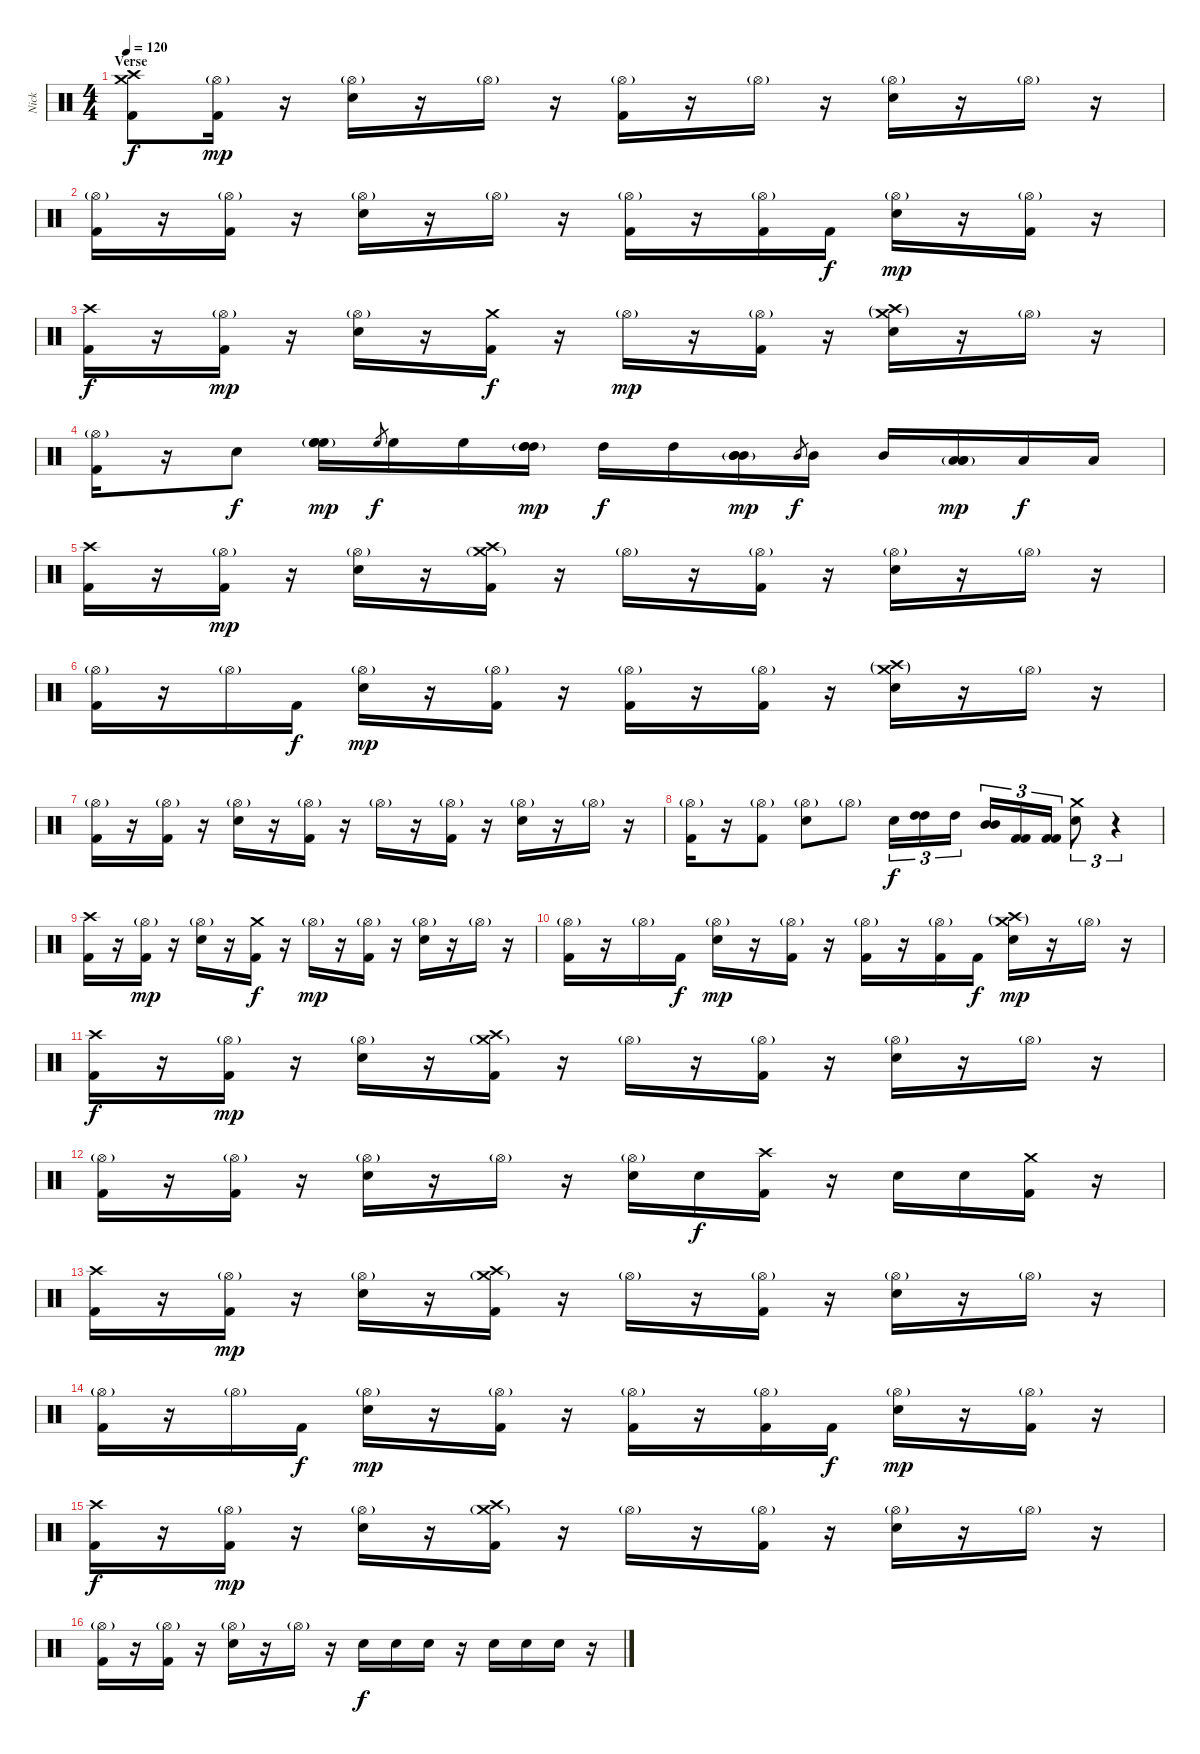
\track ("Nick" "Nick") {instrument percussion}
\staff {score}
\articulation defaults
\ts (4 4)
\section ("" "Verse")
\tempo 120
\clef neutral
\ks c
("Crash high (hit)" "Crash medium (hit)" "Kick (hit) 2").8{dy f} ("Hi-Hat (open)"{g} "Kick (hit) 2").16{dy mp} r.16 ("Hi-Hat (open)"{g} "Electric Snare (hit)").16 r.16 "Hi-Hat (open)"{g}.16 r.16 ("Hi-Hat (open)"{g} "Kick (hit) 2").16 r.16 "Hi-Hat (open)"{g}.16 r.16 ("Hi-Hat (open)"{g} "Electric Snare (hit)").16 r.16 "Hi-Hat (open)"{g}.16 r.16 |
("Hi-Hat (open)"{g} "Kick (hit) 2").16 r.16 ("Hi-Hat (open)"{g} "Kick (hit) 2").16 r.16 ("Hi-Hat (open)"{g} "Electric Snare (hit)").16 r.16 "Hi-Hat (open)"{g}.16 r.16 ("Hi-Hat (open)"{g} "Kick (hit) 2").16 r.16 ("Hi-Hat (open)"{g} "Kick (hit) 2").16 "Kick (hit) 2".16{dy f} ("Hi-Hat (open)"{g} "Electric Snare (hit)").16{dy mp} r.16 ("Hi-Hat (open)"{g} "Kick (hit) 2").16 r.16 |
("Crash high (hit)" "Kick (hit) 2").16{dy f} r.16 ("Hi-Hat (open)"{g} "Kick (hit) 2").16{dy mp} r.16 ("Hi-Hat (open)"{g} "Electric Snare (hit)").16 r.16 ("Crash medium (hit)" "Kick (hit) 2").16{dy f} r.16 "Hi-Hat (open)"{g}.16{dy mp} r.16 ("Hi-Hat (open)"{g} "Kick (hit) 2").16 r.16 ("Crash medium (hit)"{g} "Crash high (hit)"{g} "Electric Snare (hit)").16 r.16 "Hi-Hat (open)"{g}.16 r.16 |
("Hi-Hat (open)"{g} "Kick (hit) 2").16 r.16 "Electric Snare (hit)".8{dy f} ("High Floor Tom (hit)" "High Floor Tom (hit)" "High Floor Tom (hit)"{g}).16{dy mp} "High Floor Tom (hit)".8{gr dy f} "High Floor Tom (hit)".16 "High Floor Tom (hit)".16 ("High Tom (hit)" "High Tom (hit)" "High Tom (hit)"{g}).16{dy mp} "High Tom (hit)".16{dy f} "High Tom (hit)".16 ("Mid Tom (hit)" "Mid Tom (hit)" "Mid Tom (hit)"{g}).16{dy mp} "Mid Tom (hit)".8{gr dy f} "Mid Tom (hit)".16 "Mid Tom (hit)".16 ("Low Tom (hit)" "Low Tom (hit)" "Low Tom (hit)"{g}).16{dy mp} "Low Tom (hit)".16{dy f} "Low Tom (hit)".16 |
("Crash high (hit)" "Kick (hit) 2").16 r.16 ("Hi-Hat (open)"{g} "Kick (hit) 2").16{dy mp} r.16 ("Hi-Hat (open)"{g} "Electric Snare (hit)").16 r.16 ("Crash medium (hit)"{g} "Crash high (hit)" "Kick (hit) 2").16 r.16 "Hi-Hat (open)"{g}.16 r.16 ("Hi-Hat (open)"{g} "Kick (hit) 2").16 r.16 ("Hi-Hat (open)"{g} "Electric Snare (hit)").16 r.16 "Hi-Hat (open)"{g}.16 r.16 |
("Hi-Hat (open)"{g} "Kick (hit) 2").16 r.16 "Hi-Hat (open)"{g}.16 "Kick (hit) 2".16{dy f} ("Hi-Hat (open)"{g} "Electric Snare (hit)").16{dy mp} r.16 ("Hi-Hat (open)"{g} "Kick (hit) 2").16 r.16 ("Hi-Hat (open)"{g} "Kick (hit) 2").16 r.16 ("Hi-Hat (open)"{g} "Kick (hit) 2").16 r.16 ("Crash medium (hit)"{g} "Crash high (hit)"{g} "Electric Snare (hit)").16 r.16 "Hi-Hat (open)"{g}.16 r.16 |
("Hi-Hat (open)"{g} "Kick (hit) 2").16 r.16 ("Hi-Hat (open)"{g} "Kick (hit) 2").16 r.16 ("Hi-Hat (open)"{g} "Electric Snare (hit)").16 r.16 ("Hi-Hat (open)"{g} "Kick (hit) 2").16 r.16 "Hi-Hat (open)"{g}.16 r.16 ("Hi-Hat (open)"{g} "Kick (hit) 2").16 r.16 ("Hi-Hat (open)"{g} "Electric Snare (hit)").16 r.16 "Hi-Hat (open)"{g}.16 r.16 |
("Hi-Hat (open)"{g} "Kick (hit) 2").16 r.16 ("Hi-Hat (open)"{g} "Kick (hit) 2").8 ("Hi-Hat (open)"{g} "Electric Snare (hit)").8 "Hi-Hat (open)"{g}.8 "Electric Snare (hit)".16{tu (3 2) dy f} ("High Tom (hit)" "High Tom (hit)").16{tu (3 2)} "High Tom (hit)".16{tu (3 2)} ("Mid Tom (hit)" "Mid Tom (hit)").16{tu (3 2)} ("Kick (hit) 2" "Kick (hit) 2").16{tu (3 2)} ("Kick (hit) 2" "Kick (hit) 2").16{tu (3 2)} ("Crash medium (hit)" "Electric Snare (hit)").8{tu (3 2)} r.4{tu (3 2)} |
("Crash high (hit)" "Kick (hit) 2").16 r.16 ("Hi-Hat (open)"{g} "Kick (hit) 2").16{dy mp} r.16 ("Hi-Hat (open)"{g} "Electric Snare (hit)").16 r.16 ("Crash medium (hit)" "Kick (hit) 2").16{dy f} r.16 "Hi-Hat (open)"{g}.16{dy mp} r.16 ("Hi-Hat (open)"{g} "Kick (hit) 2").16 r.16 ("Hi-Hat (open)"{g} "Electric Snare (hit)").16 r.16 "Hi-Hat (open)"{g}.16 r.16 |
("Hi-Hat (open)"{g} "Kick (hit) 2").16 r.16 "Hi-Hat (open)"{g}.16 "Kick (hit) 2".16{dy f} ("Hi-Hat (open)"{g} "Electric Snare (hit)").16{dy mp} r.16 ("Hi-Hat (open)"{g} "Kick (hit) 2").16 r.16 ("Hi-Hat (open)"{g} "Kick (hit) 2").16 r.16 ("Hi-Hat (open)"{g} "Kick (hit) 2").16 "Kick (hit) 2".16{dy f} ("Crash medium (hit)"{g} "Crash high (hit)"{g} "Electric Snare (hit)").16{dy mp} r.16 "Hi-Hat (open)"{g}.16 r.16 |
("Crash high (hit)" "Kick (hit) 2").16{dy f} r.16 ("Hi-Hat (open)"{g} "Kick (hit) 2").16{dy mp} r.16 ("Hi-Hat (open)"{g} "Electric Snare (hit)").16 r.16 ("Crash medium (hit)"{g} "Crash high (hit)" "Kick (hit) 2").16 r.16 "Hi-Hat (open)"{g}.16 r.16 ("Hi-Hat (open)"{g} "Kick (hit) 2").16 r.16 ("Hi-Hat (open)"{g} "Electric Snare (hit)").16 r.16 "Hi-Hat (open)"{g}.16 r.16 |
("Hi-Hat (open)"{g} "Kick (hit) 2").16 r.16 ("Hi-Hat (open)"{g} "Kick (hit) 2").16 r.16 ("Hi-Hat (open)"{g} "Electric Snare (hit)").16 r.16 "Hi-Hat (open)"{g}.16 r.16 ("Hi-Hat (open)"{g} "Electric Snare (hit)").16 "Electric Snare (hit)".16{dy f} ("Crash high (hit)" "Kick (hit) 2").16 r.16 "Electric Snare (hit)".16 "Electric Snare (hit)".16 ("Crash medium (hit)" "Kick (hit) 2").16 r.16 |
("Crash high (hit)" "Kick (hit) 2").16 r.16 ("Hi-Hat (open)"{g} "Kick (hit) 2").16{dy mp} r.16 ("Hi-Hat (open)"{g} "Electric Snare (hit)").16 r.16 ("Crash medium (hit)"{g} "Crash high (hit)" "Kick (hit) 2").16 r.16 "Hi-Hat (open)"{g}.16 r.16 ("Hi-Hat (open)"{g} "Kick (hit) 2").16 r.16 ("Hi-Hat (open)"{g} "Electric Snare (hit)").16 r.16 "Hi-Hat (open)"{g}.16 r.16 |
("Hi-Hat (open)"{g} "Kick (hit) 2").16 r.16 "Hi-Hat (open)"{g}.16 "Kick (hit) 2".16{dy f} ("Hi-Hat (open)"{g} "Electric Snare (hit)").16{dy mp} r.16 ("Hi-Hat (open)"{g} "Kick (hit) 2").16 r.16 ("Hi-Hat (open)"{g} "Kick (hit) 2").16 r.16 ("Hi-Hat (open)"{g} "Kick (hit) 2").16 "Kick (hit) 2".16{dy f} ("Hi-Hat (open)"{g} "Electric Snare (hit)").16{dy mp} r.16 ("Hi-Hat (open)"{g} "Kick (hit) 2").16 r.16 |
("Crash high (hit)" "Kick (hit) 2").16{dy f} r.16 ("Hi-Hat (open)"{g} "Kick (hit) 2").16{dy mp} r.16 ("Hi-Hat (open)"{g} "Electric Snare (hit)").16 r.16 ("Crash medium (hit)"{g} "Crash high (hit)" "Kick (hit) 2").16 r.16 "Hi-Hat (open)"{g}.16 r.16 ("Hi-Hat (open)"{g} "Kick (hit) 2").16 r.16 ("Hi-Hat (open)"{g} "Electric Snare (hit)").16 r.16 "Hi-Hat (open)"{g}.16 r.16 |
("Hi-Hat (open)"{g} "Kick (hit) 2").16 r.16 ("Hi-Hat (open)"{g} "Kick (hit) 2").16 r.16 ("Hi-Hat (open)"{g} "Electric Snare (hit)").16 r.16 "Hi-Hat (open)"{g}.16 r.16 "Electric Snare (hit)".16{dy f} "Electric Snare (hit)".16 "Electric Snare (hit)".16 r.16 "Electric Snare (hit)".16 "Electric Snare (hit)".16 "Electric Snare (hit)".16 r.16
